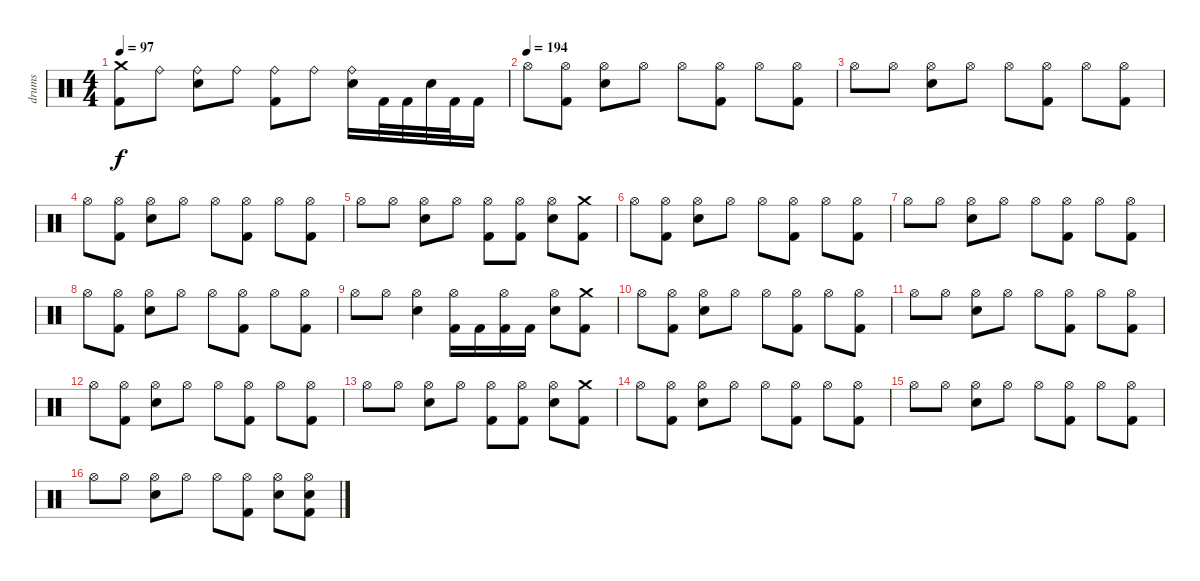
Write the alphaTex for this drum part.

\track ("drums" "drums") {instrument percussion}
\staff {score}
\articulation defaults
\ts (4 4)
\tempo 97
\clef neutral
\ks c
("Crash medium (hit)" "Kick (hit) 2").8{dy f} "Ride (bell)".8 ("Ride (bell)" "Electric Snare (hit)").8 "Ride (bell)".8 ("Ride (bell)" "Kick (hit) 2").8 "Ride (bell)".8 ("Ride (bell)" "Electric Snare (hit)").16 "Kick (hit) 2".32 "Kick (hit) 2".32 "Electric Snare (hit)".32 "Kick (hit) 2".32 "Kick (hit) 2".16 |
\tempo (194)
"Hi-Hat (open)".8 ("Hi-Hat (open)" "Kick (hit) 2").8 ("Hi-Hat (open)" "Electric Snare (hit)").8 "Hi-Hat (open)".8 "Hi-Hat (open)".8 ("Hi-Hat (open)" "Kick (hit) 2").8 "Hi-Hat (open)".8 ("Hi-Hat (open)" "Kick (hit) 2").8 |
"Hi-Hat (open)".8 "Hi-Hat (open)".8 ("Hi-Hat (open)" "Electric Snare (hit)").8 "Hi-Hat (open)".8 "Hi-Hat (open)".8 ("Hi-Hat (open)" "Kick (hit) 2").8 "Hi-Hat (open)".8 ("Hi-Hat (open)" "Kick (hit) 2").8 |
"Hi-Hat (open)".8 ("Hi-Hat (open)" "Kick (hit) 2").8 ("Hi-Hat (open)" "Electric Snare (hit)").8 "Hi-Hat (open)".8 "Hi-Hat (open)".8 ("Hi-Hat (open)" "Kick (hit) 2").8 "Hi-Hat (open)".8 ("Hi-Hat (open)" "Kick (hit) 2").8 |
"Hi-Hat (open)".8 "Hi-Hat (open)".8 ("Hi-Hat (open)" "Electric Snare (hit)").8 "Hi-Hat (open)".8 ("Hi-Hat (open)" "Kick (hit) 2").8 ("Hi-Hat (open)" "Kick (hit) 2").8 ("Hi-Hat (open)" "Electric Snare (hit)").8 ("Crash medium (hit)" "Kick (hit) 2").8 |
"Hi-Hat (open)".8 ("Hi-Hat (open)" "Kick (hit) 2").8 ("Hi-Hat (open)" "Electric Snare (hit)").8 "Hi-Hat (open)".8 "Hi-Hat (open)".8 ("Hi-Hat (open)" "Kick (hit) 2").8 "Hi-Hat (open)".8 ("Hi-Hat (open)" "Kick (hit) 2").8 |
"Hi-Hat (open)".8 "Hi-Hat (open)".8 ("Hi-Hat (open)" "Electric Snare (hit)").8 "Hi-Hat (open)".8 "Hi-Hat (open)".8 ("Hi-Hat (open)" "Kick (hit) 2").8 "Hi-Hat (open)".8 ("Hi-Hat (open)" "Kick (hit) 2").8 |
"Hi-Hat (open)".8 ("Hi-Hat (open)" "Kick (hit) 2").8 ("Hi-Hat (open)" "Electric Snare (hit)").8 "Hi-Hat (open)".8 "Hi-Hat (open)".8 ("Hi-Hat (open)" "Kick (hit) 2").8 "Hi-Hat (open)".8 ("Hi-Hat (open)" "Kick (hit) 2").8 |
"Hi-Hat (open)".8 "Hi-Hat (open)".8 ("Hi-Hat (open)" "Electric Snare (hit)").4 ("Hi-Hat (open)" "Kick (hit) 2").16 "Kick (hit) 2".16 ("Hi-Hat (open)" "Kick (hit) 2").16 "Kick (hit) 2".16 ("Hi-Hat (open)" "Electric Snare (hit)").8 ("Crash medium (hit)" "Kick (hit) 2").8 |
"Hi-Hat (open)".8 ("Hi-Hat (open)" "Kick (hit) 2").8 ("Hi-Hat (open)" "Electric Snare (hit)").8 "Hi-Hat (open)".8 "Hi-Hat (open)".8 ("Hi-Hat (open)" "Kick (hit) 2").8 "Hi-Hat (open)".8 ("Hi-Hat (open)" "Kick (hit) 2").8 |
"Hi-Hat (open)".8 "Hi-Hat (open)".8 ("Hi-Hat (open)" "Electric Snare (hit)").8 "Hi-Hat (open)".8 "Hi-Hat (open)".8 ("Hi-Hat (open)" "Kick (hit) 2").8 "Hi-Hat (open)".8 ("Hi-Hat (open)" "Kick (hit) 2").8 |
"Hi-Hat (open)".8 ("Hi-Hat (open)" "Kick (hit) 2").8 ("Hi-Hat (open)" "Electric Snare (hit)").8 "Hi-Hat (open)".8 "Hi-Hat (open)".8 ("Hi-Hat (open)" "Kick (hit) 2").8 "Hi-Hat (open)".8 ("Hi-Hat (open)" "Kick (hit) 2").8 |
"Hi-Hat (open)".8 "Hi-Hat (open)".8 ("Hi-Hat (open)" "Electric Snare (hit)").8 "Hi-Hat (open)".8 ("Hi-Hat (open)" "Kick (hit) 2").8 ("Hi-Hat (open)" "Kick (hit) 2").8 ("Hi-Hat (open)" "Electric Snare (hit)").8 ("Crash medium (hit)" "Kick (hit) 2").8 |
"Hi-Hat (open)".8 ("Hi-Hat (open)" "Kick (hit) 2").8 ("Hi-Hat (open)" "Electric Snare (hit)").8 "Hi-Hat (open)".8 "Hi-Hat (open)".8 ("Hi-Hat (open)" "Kick (hit) 2").8 "Hi-Hat (open)".8 ("Hi-Hat (open)" "Kick (hit) 2").8 |
"Hi-Hat (open)".8 "Hi-Hat (open)".8 ("Hi-Hat (open)" "Electric Snare (hit)").8 "Hi-Hat (open)".8 "Hi-Hat (open)".8 ("Hi-Hat (open)" "Kick (hit) 2").8 "Hi-Hat (open)".8 ("Hi-Hat (open)" "Kick (hit) 2").8 |
"Hi-Hat (open)".8 "Hi-Hat (open)".8 ("Hi-Hat (open)" "Electric Snare (hit)").8 "Hi-Hat (open)".8 "Hi-Hat (open)".8 ("Hi-Hat (open)" "Kick (hit) 2").8 ("Hi-Hat (open)" "Electric Snare (hit)").8 ("Hi-Hat (open)" "Electric Snare (hit)" "Kick (hit) 2").8
